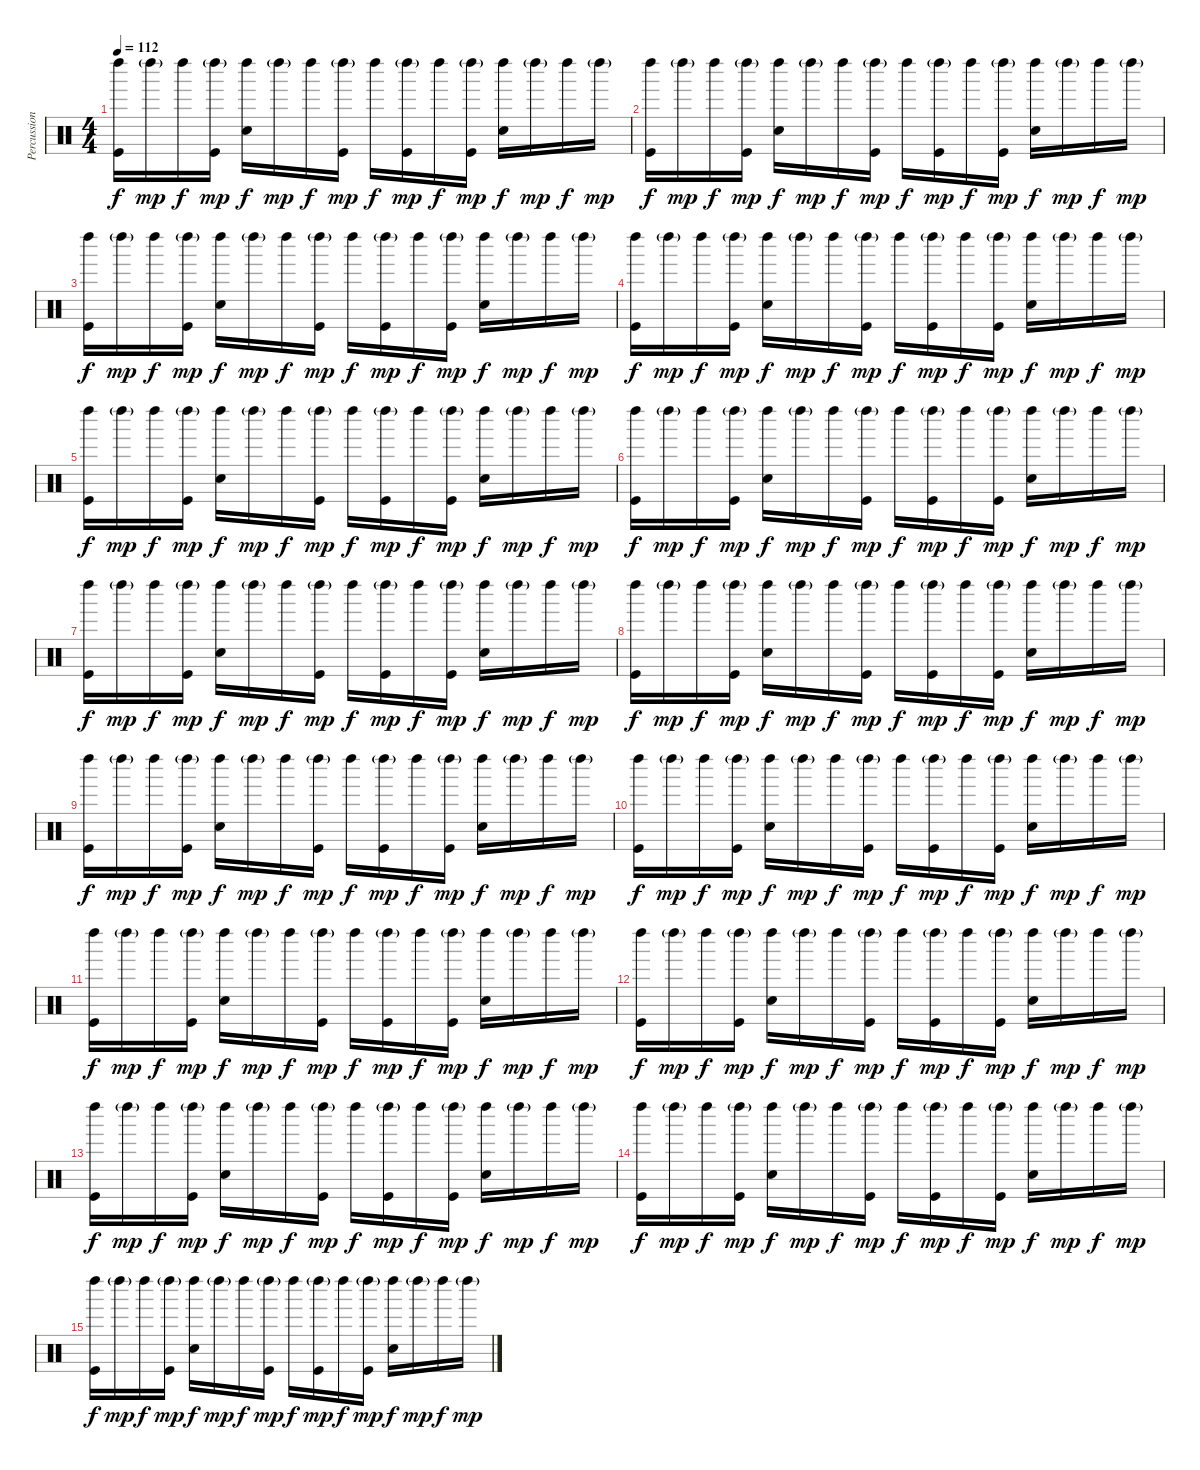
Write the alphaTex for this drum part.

\track ("Percussion" "Percussion") {instrument percussion}
\staff {score}
\articulation defaults
\ts (4 4)
\tempo 112
\clef neutral
\ks c
("Left Maraca (hit)" "Kick (hit)").16{dy f} "Left Maraca (hit)"{g}.16{dy mp} "Left Maraca (hit)".16{dy f} ("Left Maraca (hit)"{g} "Kick (hit)").16{dy mp} ("Left Maraca (hit)" "Snare (hit) 2").16{dy f} "Left Maraca (hit)"{g}.16{dy mp} "Left Maraca (hit)".16{dy f} ("Left Maraca (hit)"{g} "Kick (hit)").16{dy mp} "Left Maraca (hit)".16{dy f} ("Left Maraca (hit)"{g} "Kick (hit)").16{dy mp} "Left Maraca (hit)".16{dy f} ("Left Maraca (hit)"{g} "Kick (hit)").16{dy mp} ("Left Maraca (hit)" "Snare (hit) 2").16{dy f} "Left Maraca (hit)"{g}.16{dy mp} "Left Maraca (hit)".16{dy f} "Left Maraca (hit)"{g}.16{dy mp} |
("Left Maraca (hit)" "Kick (hit)").16{dy f} "Left Maraca (hit)"{g}.16{dy mp} "Left Maraca (hit)".16{dy f} ("Left Maraca (hit)"{g} "Kick (hit)").16{dy mp} ("Left Maraca (hit)" "Snare (hit) 2").16{dy f} "Left Maraca (hit)"{g}.16{dy mp} "Left Maraca (hit)".16{dy f} ("Left Maraca (hit)"{g} "Kick (hit)").16{dy mp} "Left Maraca (hit)".16{dy f} ("Left Maraca (hit)"{g} "Kick (hit)").16{dy mp} "Left Maraca (hit)".16{dy f} ("Left Maraca (hit)"{g} "Kick (hit)").16{dy mp} ("Left Maraca (hit)" "Snare (hit) 2").16{dy f} "Left Maraca (hit)"{g}.16{dy mp} "Left Maraca (hit)".16{dy f} "Left Maraca (hit)"{g}.16{dy mp} |
("Left Maraca (hit)" "Kick (hit)").16{dy f} "Left Maraca (hit)"{g}.16{dy mp} "Left Maraca (hit)".16{dy f} ("Left Maraca (hit)"{g} "Kick (hit)").16{dy mp} ("Left Maraca (hit)" "Snare (hit) 2").16{dy f} "Left Maraca (hit)"{g}.16{dy mp} "Left Maraca (hit)".16{dy f} ("Left Maraca (hit)"{g} "Kick (hit)").16{dy mp} "Left Maraca (hit)".16{dy f} ("Left Maraca (hit)"{g} "Kick (hit)").16{dy mp} "Left Maraca (hit)".16{dy f} ("Left Maraca (hit)"{g} "Kick (hit)").16{dy mp} ("Left Maraca (hit)" "Snare (hit) 2").16{dy f} "Left Maraca (hit)"{g}.16{dy mp} "Left Maraca (hit)".16{dy f} "Left Maraca (hit)"{g}.16{dy mp} |
("Left Maraca (hit)" "Kick (hit)").16{dy f} "Left Maraca (hit)"{g}.16{dy mp} "Left Maraca (hit)".16{dy f} ("Left Maraca (hit)"{g} "Kick (hit)").16{dy mp} ("Left Maraca (hit)" "Snare (hit) 2").16{dy f} "Left Maraca (hit)"{g}.16{dy mp} "Left Maraca (hit)".16{dy f} ("Left Maraca (hit)"{g} "Kick (hit)").16{dy mp} "Left Maraca (hit)".16{dy f} ("Left Maraca (hit)"{g} "Kick (hit)").16{dy mp} "Left Maraca (hit)".16{dy f} ("Left Maraca (hit)"{g} "Kick (hit)").16{dy mp} ("Left Maraca (hit)" "Snare (hit) 2").16{dy f} "Left Maraca (hit)"{g}.16{dy mp} "Left Maraca (hit)".16{dy f} "Left Maraca (hit)"{g}.16{dy mp} |
("Left Maraca (hit)" "Kick (hit)").16{dy f} "Left Maraca (hit)"{g}.16{dy mp} "Left Maraca (hit)".16{dy f} ("Left Maraca (hit)"{g} "Kick (hit)").16{dy mp} ("Left Maraca (hit)" "Snare (hit) 2").16{dy f} "Left Maraca (hit)"{g}.16{dy mp} "Left Maraca (hit)".16{dy f} ("Left Maraca (hit)"{g} "Kick (hit)").16{dy mp} "Left Maraca (hit)".16{dy f} ("Left Maraca (hit)"{g} "Kick (hit)").16{dy mp} "Left Maraca (hit)".16{dy f} ("Left Maraca (hit)"{g} "Kick (hit)").16{dy mp} ("Left Maraca (hit)" "Snare (hit) 2").16{dy f} "Left Maraca (hit)"{g}.16{dy mp} "Left Maraca (hit)".16{dy f} "Left Maraca (hit)"{g}.16{dy mp} |
("Left Maraca (hit)" "Kick (hit)").16{dy f} "Left Maraca (hit)"{g}.16{dy mp} "Left Maraca (hit)".16{dy f} ("Left Maraca (hit)"{g} "Kick (hit)").16{dy mp} ("Left Maraca (hit)" "Snare (hit) 2").16{dy f} "Left Maraca (hit)"{g}.16{dy mp} "Left Maraca (hit)".16{dy f} ("Left Maraca (hit)"{g} "Kick (hit)").16{dy mp} "Left Maraca (hit)".16{dy f} ("Left Maraca (hit)"{g} "Kick (hit)").16{dy mp} "Left Maraca (hit)".16{dy f} ("Left Maraca (hit)"{g} "Kick (hit)").16{dy mp} ("Left Maraca (hit)" "Snare (hit) 2").16{dy f} "Left Maraca (hit)"{g}.16{dy mp} "Left Maraca (hit)".16{dy f} "Left Maraca (hit)"{g}.16{dy mp} |
("Left Maraca (hit)" "Kick (hit)").16{dy f} "Left Maraca (hit)"{g}.16{dy mp} "Left Maraca (hit)".16{dy f} ("Left Maraca (hit)"{g} "Kick (hit)").16{dy mp} ("Left Maraca (hit)" "Snare (hit) 2").16{dy f} "Left Maraca (hit)"{g}.16{dy mp} "Left Maraca (hit)".16{dy f} ("Left Maraca (hit)"{g} "Kick (hit)").16{dy mp} "Left Maraca (hit)".16{dy f} ("Left Maraca (hit)"{g} "Kick (hit)").16{dy mp} "Left Maraca (hit)".16{dy f} ("Left Maraca (hit)"{g} "Kick (hit)").16{dy mp} ("Left Maraca (hit)" "Snare (hit) 2").16{dy f} "Left Maraca (hit)"{g}.16{dy mp} "Left Maraca (hit)".16{dy f} "Left Maraca (hit)"{g}.16{dy mp} |
("Left Maraca (hit)" "Kick (hit)").16{dy f} "Left Maraca (hit)"{g}.16{dy mp} "Left Maraca (hit)".16{dy f} ("Left Maraca (hit)"{g} "Kick (hit)").16{dy mp} ("Left Maraca (hit)" "Snare (hit) 2").16{dy f} "Left Maraca (hit)"{g}.16{dy mp} "Left Maraca (hit)".16{dy f} ("Left Maraca (hit)"{g} "Kick (hit)").16{dy mp} "Left Maraca (hit)".16{dy f} ("Left Maraca (hit)"{g} "Kick (hit)").16{dy mp} "Left Maraca (hit)".16{dy f} ("Left Maraca (hit)"{g} "Kick (hit)").16{dy mp} ("Left Maraca (hit)" "Snare (hit) 2").16{dy f} "Left Maraca (hit)"{g}.16{dy mp} "Left Maraca (hit)".16{dy f} "Left Maraca (hit)"{g}.16{dy mp} |
("Left Maraca (hit)" "Kick (hit)").16{dy f} "Left Maraca (hit)"{g}.16{dy mp} "Left Maraca (hit)".16{dy f} ("Left Maraca (hit)"{g} "Kick (hit)").16{dy mp} ("Left Maraca (hit)" "Snare (hit) 2").16{dy f} "Left Maraca (hit)"{g}.16{dy mp} "Left Maraca (hit)".16{dy f} ("Left Maraca (hit)"{g} "Kick (hit)").16{dy mp} "Left Maraca (hit)".16{dy f} ("Left Maraca (hit)"{g} "Kick (hit)").16{dy mp} "Left Maraca (hit)".16{dy f} ("Left Maraca (hit)"{g} "Kick (hit)").16{dy mp} ("Left Maraca (hit)" "Snare (hit) 2").16{dy f} "Left Maraca (hit)"{g}.16{dy mp} "Left Maraca (hit)".16{dy f} "Left Maraca (hit)"{g}.16{dy mp} |
("Left Maraca (hit)" "Kick (hit)").16{dy f} "Left Maraca (hit)"{g}.16{dy mp} "Left Maraca (hit)".16{dy f} ("Left Maraca (hit)"{g} "Kick (hit)").16{dy mp} ("Left Maraca (hit)" "Snare (hit) 2").16{dy f} "Left Maraca (hit)"{g}.16{dy mp} "Left Maraca (hit)".16{dy f} ("Left Maraca (hit)"{g} "Kick (hit)").16{dy mp} "Left Maraca (hit)".16{dy f} ("Left Maraca (hit)"{g} "Kick (hit)").16{dy mp} "Left Maraca (hit)".16{dy f} ("Left Maraca (hit)"{g} "Kick (hit)").16{dy mp} ("Left Maraca (hit)" "Snare (hit) 2").16{dy f} "Left Maraca (hit)"{g}.16{dy mp} "Left Maraca (hit)".16{dy f} "Left Maraca (hit)"{g}.16{dy mp} |
("Left Maraca (hit)" "Kick (hit)").16{dy f} "Left Maraca (hit)"{g}.16{dy mp} "Left Maraca (hit)".16{dy f} ("Left Maraca (hit)"{g} "Kick (hit)").16{dy mp} ("Left Maraca (hit)" "Snare (hit) 2").16{dy f} "Left Maraca (hit)"{g}.16{dy mp} "Left Maraca (hit)".16{dy f} ("Left Maraca (hit)"{g} "Kick (hit)").16{dy mp} "Left Maraca (hit)".16{dy f} ("Left Maraca (hit)"{g} "Kick (hit)").16{dy mp} "Left Maraca (hit)".16{dy f} ("Left Maraca (hit)"{g} "Kick (hit)").16{dy mp} ("Left Maraca (hit)" "Snare (hit) 2").16{dy f} "Left Maraca (hit)"{g}.16{dy mp} "Left Maraca (hit)".16{dy f} "Left Maraca (hit)"{g}.16{dy mp} |
("Left Maraca (hit)" "Kick (hit)").16{dy f} "Left Maraca (hit)"{g}.16{dy mp} "Left Maraca (hit)".16{dy f} ("Left Maraca (hit)"{g} "Kick (hit)").16{dy mp} ("Left Maraca (hit)" "Snare (hit) 2").16{dy f} "Left Maraca (hit)"{g}.16{dy mp} "Left Maraca (hit)".16{dy f} ("Left Maraca (hit)"{g} "Kick (hit)").16{dy mp} "Left Maraca (hit)".16{dy f} ("Left Maraca (hit)"{g} "Kick (hit)").16{dy mp} "Left Maraca (hit)".16{dy f} ("Left Maraca (hit)"{g} "Kick (hit)").16{dy mp} ("Left Maraca (hit)" "Snare (hit) 2").16{dy f} "Left Maraca (hit)"{g}.16{dy mp} "Left Maraca (hit)".16{dy f} "Left Maraca (hit)"{g}.16{dy mp} |
("Left Maraca (hit)" "Kick (hit)").16{dy f} "Left Maraca (hit)"{g}.16{dy mp} "Left Maraca (hit)".16{dy f} ("Left Maraca (hit)"{g} "Kick (hit)").16{dy mp} ("Left Maraca (hit)" "Snare (hit) 2").16{dy f} "Left Maraca (hit)"{g}.16{dy mp} "Left Maraca (hit)".16{dy f} ("Left Maraca (hit)"{g} "Kick (hit)").16{dy mp} "Left Maraca (hit)".16{dy f} ("Left Maraca (hit)"{g} "Kick (hit)").16{dy mp} "Left Maraca (hit)".16{dy f} ("Left Maraca (hit)"{g} "Kick (hit)").16{dy mp} ("Left Maraca (hit)" "Snare (hit) 2").16{dy f} "Left Maraca (hit)"{g}.16{dy mp} "Left Maraca (hit)".16{dy f} "Left Maraca (hit)"{g}.16{dy mp} |
("Left Maraca (hit)" "Kick (hit)").16{dy f} "Left Maraca (hit)"{g}.16{dy mp} "Left Maraca (hit)".16{dy f} ("Left Maraca (hit)"{g} "Kick (hit)").16{dy mp} ("Left Maraca (hit)" "Snare (hit) 2").16{dy f} "Left Maraca (hit)"{g}.16{dy mp} "Left Maraca (hit)".16{dy f} ("Left Maraca (hit)"{g} "Kick (hit)").16{dy mp} "Left Maraca (hit)".16{dy f} ("Left Maraca (hit)"{g} "Kick (hit)").16{dy mp} "Left Maraca (hit)".16{dy f} ("Left Maraca (hit)"{g} "Kick (hit)").16{dy mp} ("Left Maraca (hit)" "Snare (hit) 2").16{dy f} "Left Maraca (hit)"{g}.16{dy mp} "Left Maraca (hit)".16{dy f} "Left Maraca (hit)"{g}.16{dy mp} |
("Left Maraca (hit)" "Kick (hit)").16{dy f} "Left Maraca (hit)"{g}.16{dy mp} "Left Maraca (hit)".16{dy f} ("Left Maraca (hit)"{g} "Kick (hit)").16{dy mp} ("Left Maraca (hit)" "Snare (hit) 2").16{dy f} "Left Maraca (hit)"{g}.16{dy mp} "Left Maraca (hit)".16{dy f} ("Left Maraca (hit)"{g} "Kick (hit)").16{dy mp} "Left Maraca (hit)".16{dy f} ("Left Maraca (hit)"{g} "Kick (hit)").16{dy mp} "Left Maraca (hit)".16{dy f} ("Left Maraca (hit)"{g} "Kick (hit)").16{dy mp} ("Left Maraca (hit)" "Snare (hit) 2").16{dy f} "Left Maraca (hit)"{g}.16{dy mp} "Left Maraca (hit)".16{dy f} "Left Maraca (hit)"{g}.16{dy mp}
